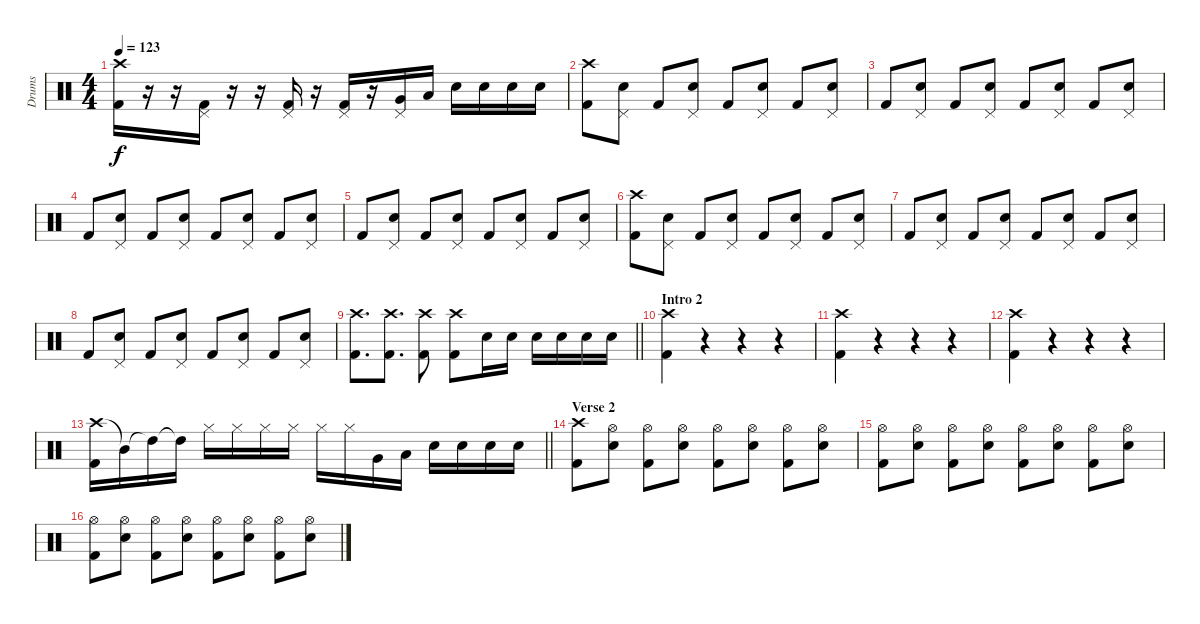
\track ("Drums" "Drums") {instrument percussion}
\staff {score}
\articulation defaults
\ts (4 4)
\tempo 123
\clef neutral
\ks c
("Crash high (hit)" "Kick (hit) 2").16{dy f} r.16 r.16 ("Pedal Hi-Hat (hit)" "Kick (hit) 2").16 r.16 r.16 ("Pedal Hi-Hat (hit)" "Kick (hit) 2").16 r.16 ("Pedal Hi-Hat (hit)" "Kick (hit) 2").16 r.16 ("Pedal Hi-Hat (hit)" "Very Low Tom (hit)").16 "Low Floor Tom (hit)".16 "Snare (hit) 2".16 "Snare (hit) 2".16 "Snare (hit) 2".16 "Snare (hit) 2".16 |
("Crash high (hit)" "Kick (hit) 2").8 ("Pedal Hi-Hat (hit)" "Snare (hit) 2").8 "Kick (hit) 2".8 ("Pedal Hi-Hat (hit)" "Snare (hit) 2").8 "Kick (hit) 2".8 ("Pedal Hi-Hat (hit)" "Snare (hit) 2").8 "Kick (hit) 2".8 ("Pedal Hi-Hat (hit)" "Snare (hit) 2").8 |
"Kick (hit) 2".8 ("Pedal Hi-Hat (hit)" "Snare (hit) 2").8 "Kick (hit) 2".8 ("Pedal Hi-Hat (hit)" "Snare (hit) 2").8 "Kick (hit) 2".8 ("Pedal Hi-Hat (hit)" "Snare (hit) 2").8 "Kick (hit) 2".8 ("Pedal Hi-Hat (hit)" "Snare (hit) 2").8 |
"Kick (hit) 2".8 ("Pedal Hi-Hat (hit)" "Snare (hit) 2").8 "Kick (hit) 2".8 ("Pedal Hi-Hat (hit)" "Snare (hit) 2").8 "Kick (hit) 2".8 ("Pedal Hi-Hat (hit)" "Snare (hit) 2").8 "Kick (hit) 2".8 ("Pedal Hi-Hat (hit)" "Snare (hit) 2").8 |
"Kick (hit) 2".8 ("Pedal Hi-Hat (hit)" "Snare (hit) 2").8 "Kick (hit) 2".8 ("Pedal Hi-Hat (hit)" "Snare (hit) 2").8 "Kick (hit) 2".8 ("Pedal Hi-Hat (hit)" "Snare (hit) 2").8 "Kick (hit) 2".8 ("Pedal Hi-Hat (hit)" "Snare (hit) 2").8 |
("Crash high (hit)" "Kick (hit) 2").8 ("Pedal Hi-Hat (hit)" "Snare (hit) 2").8 "Kick (hit) 2".8 ("Pedal Hi-Hat (hit)" "Snare (hit) 2").8 "Kick (hit) 2".8 ("Pedal Hi-Hat (hit)" "Snare (hit) 2").8 "Kick (hit) 2".8 ("Pedal Hi-Hat (hit)" "Snare (hit) 2").8 |
"Kick (hit) 2".8 ("Pedal Hi-Hat (hit)" "Snare (hit) 2").8 "Kick (hit) 2".8 ("Pedal Hi-Hat (hit)" "Snare (hit) 2").8 "Kick (hit) 2".8 ("Pedal Hi-Hat (hit)" "Snare (hit) 2").8 "Kick (hit) 2".8 ("Pedal Hi-Hat (hit)" "Snare (hit) 2").8 |
"Kick (hit) 2".8 ("Pedal Hi-Hat (hit)" "Snare (hit) 2").8 "Kick (hit) 2".8 ("Pedal Hi-Hat (hit)" "Snare (hit) 2").8 "Kick (hit) 2".8 ("Pedal Hi-Hat (hit)" "Snare (hit) 2").8 "Kick (hit) 2".8 ("Pedal Hi-Hat (hit)" "Snare (hit) 2").8 |
\barLineRight lightlight
("Crash high (hit)" "Kick (hit) 2").8{d} ("Crash high (hit)" "Kick (hit) 2").8{d} ("Crash high (hit)" "Kick (hit) 2").8 ("Crash high (hit)" "Kick (hit) 2").8 "Snare (hit) 2".16 "Snare (hit) 2".16 "Snare (hit) 2".16 "Snare (hit) 2".16 "Snare (hit) 2".16 "Snare (hit) 2".16 |
\section ("" "Intro 2")
("Crash high (hit)" "Kick (hit) 2").4 r.4 r.4 r.4 |
("Crash high (hit)" "Kick (hit) 2").4 r.4 r.4 r.4 |
("Crash high (hit)" "Kick (hit) 2").4 r.4 r.4 r.4 |
\barLineRight lightlight
("Crash high (hit)" "Kick (hit) 2").16 "Mid Tom (hit)"{t}.16 "High Tom (hit)"{t}.16 "High Tom (hit)"{t}.16 "Hi-Hat (closed)".16 "Hi-Hat (closed)".16 "Hi-Hat (closed)".16 "Hi-Hat (closed)".16 "Hi-Hat (closed)".16 "Hi-Hat (closed)".16 "Very Low Tom (hit)".16 "Low Tom (hit)".16 "Snare (hit) 2".16 "Snare (hit) 2".16 "Snare (hit) 2".16 "Snare (hit) 2".16 |
\section ("" "Verse 2")
("Crash high (hit)" "Kick (hit) 2").8 ("Hi-Hat (open)" "Snare (hit) 2").8 ("Hi-Hat (open)" "Kick (hit) 2").8 ("Hi-Hat (open)" "Snare (hit) 2").8 ("Hi-Hat (open)" "Kick (hit) 2").8 ("Hi-Hat (open)" "Snare (hit) 2").8 ("Hi-Hat (open)" "Kick (hit) 2").8 ("Hi-Hat (open)" "Snare (hit) 2").8 |
("Hi-Hat (open)" "Kick (hit) 2").8 ("Hi-Hat (open)" "Snare (hit) 2").8 ("Hi-Hat (open)" "Kick (hit) 2").8 ("Hi-Hat (open)" "Snare (hit) 2").8 ("Hi-Hat (open)" "Kick (hit) 2").8 ("Hi-Hat (open)" "Snare (hit) 2").8 ("Hi-Hat (open)" "Kick (hit) 2").8 ("Hi-Hat (open)" "Snare (hit) 2").8 |
("Hi-Hat (open)" "Kick (hit) 2").8 ("Hi-Hat (open)" "Snare (hit) 2").8 ("Hi-Hat (open)" "Kick (hit) 2").8 ("Hi-Hat (open)" "Snare (hit) 2").8 ("Hi-Hat (open)" "Kick (hit) 2").8 ("Hi-Hat (open)" "Snare (hit) 2").8 ("Hi-Hat (open)" "Kick (hit) 2").8 ("Hi-Hat (open)" "Snare (hit) 2").8
